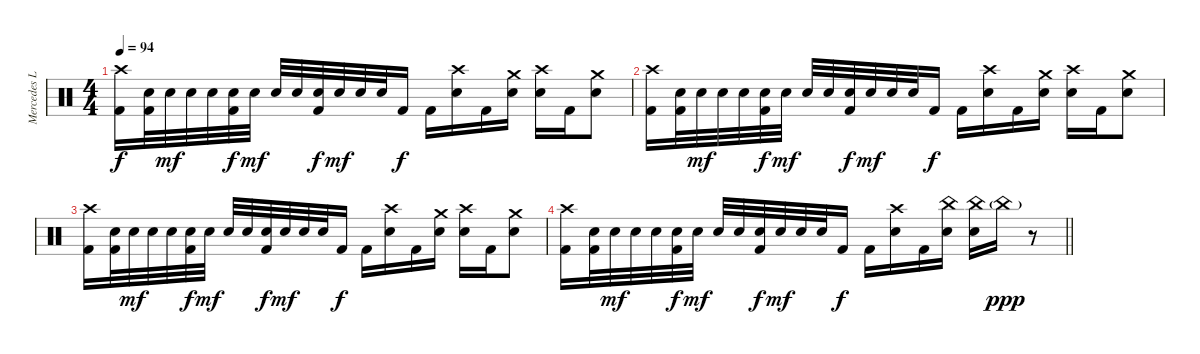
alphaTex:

\track ("Mercedes Lander" "Mercedes L") {instrument percussion}
\staff {score}
\articulation defaults
\ts (4 4)
\tempo 94
\clef neutral
\ks c
("Crash high (hit)" "Kick (hit) 2").16{dy f} ("Snare (hit) 2" "Kick (hit) 2").32 "Snare (hit) 2".32{dy mf} "Snare (hit) 2".32 "Snare (hit) 2".32 ("Snare (hit) 2" "Kick (hit) 2").32{dy f} "Snare (hit) 2".32{dy mf} "Snare (hit) 2".32 "Snare (hit) 2".32 ("Snare (hit) 2" "Kick (hit) 2").32{dy f} "Snare (hit) 2".32{dy mf} "Snare (hit) 2".32 "Snare (hit) 2".32 "Kick (hit) 2".16{dy f} "Kick (hit) 2".16 ("Crash high (hit)" "Snare (hit) 2").16 "Kick (hit) 2".16 ("Crash medium (hit)" "Snare (hit) 2").16 ("Crash high (hit)" "Snare (hit) 2").16 "Kick (hit) 2".16 ("Crash medium (hit)" "Snare (hit) 2").8 |
("Crash high (hit)" "Kick (hit) 2").16 ("Snare (hit) 2" "Kick (hit) 2").32 "Snare (hit) 2".32{dy mf} "Snare (hit) 2".32 "Snare (hit) 2".32 ("Snare (hit) 2" "Kick (hit) 2").32{dy f} "Snare (hit) 2".32{dy mf} "Snare (hit) 2".32 "Snare (hit) 2".32 ("Snare (hit) 2" "Kick (hit) 2").32{dy f} "Snare (hit) 2".32{dy mf} "Snare (hit) 2".32 "Snare (hit) 2".32 "Kick (hit) 2".16{dy f} "Kick (hit) 2".16 ("Crash high (hit)" "Snare (hit) 2").16 "Kick (hit) 2".16 ("Crash medium (hit)" "Snare (hit) 2").16 ("Crash high (hit)" "Snare (hit) 2").16 "Kick (hit) 2".16 ("Crash medium (hit)" "Snare (hit) 2").8 |
("Crash high (hit)" "Kick (hit) 2").16 ("Snare (hit) 2" "Kick (hit) 2").32 "Snare (hit) 2".32{dy mf} "Snare (hit) 2".32 "Snare (hit) 2".32 ("Snare (hit) 2" "Kick (hit) 2").32{dy f} "Snare (hit) 2".32{dy mf} "Snare (hit) 2".32 "Snare (hit) 2".32 ("Snare (hit) 2" "Kick (hit) 2").32{dy f} "Snare (hit) 2".32{dy mf} "Snare (hit) 2".32 "Snare (hit) 2".32 "Kick (hit) 2".16{dy f} "Kick (hit) 2".16 ("Crash high (hit)" "Snare (hit) 2").16 "Kick (hit) 2".16 ("Crash medium (hit)" "Snare (hit) 2").16 ("Crash high (hit)" "Snare (hit) 2").16 "Kick (hit) 2".16 ("Crash medium (hit)" "Snare (hit) 2").8 |
\barLineRight lightlight
("Crash high (hit)" "Kick (hit) 2").16 ("Snare (hit) 2" "Kick (hit) 2").32 "Snare (hit) 2".32{dy mf} "Snare (hit) 2".32 "Snare (hit) 2".32 ("Snare (hit) 2" "Kick (hit) 2").32{dy f} "Snare (hit) 2".32{dy mf} "Snare (hit) 2".32 "Snare (hit) 2".32 ("Snare (hit) 2" "Kick (hit) 2").32{dy f} "Snare (hit) 2".32{dy mf} "Snare (hit) 2".32 "Snare (hit) 2".32 "Kick (hit) 2".16{dy f} "Kick (hit) 2".16 ("Crash high (hit)" "Snare (hit) 2").16 "Kick (hit) 2".16 ("China (hit)" "Snare (hit) 2").16 ("China (hit)" "Snare (hit) 2").16 "China (hit)"{g}.16{dy ppp} r.8
